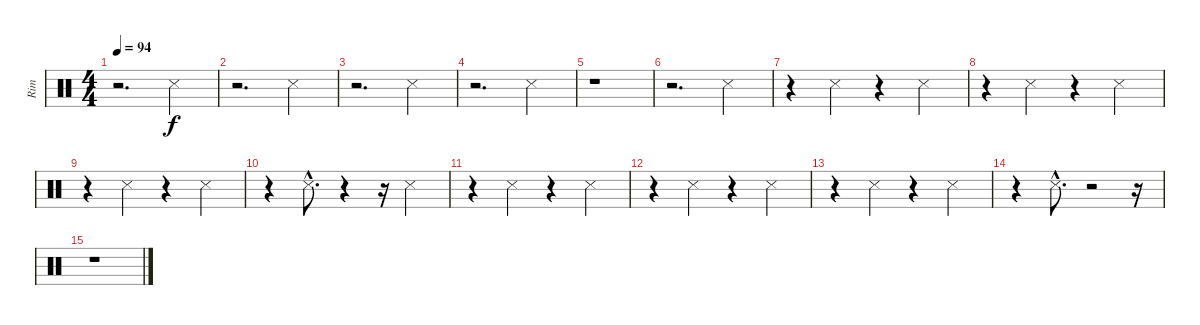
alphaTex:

\track ("Rim" "Rim") {instrument percussion}
\staff {score}
\articulation defaults
\ts (4 4)
\tempo 94
\clef neutral
\ks c
r.2{d dy f} "Snare (side stick) 3".4 |
r.2{d} "Snare (side stick) 3".4 |
r.2{d} "Snare (side stick) 3".4 |
r.2{d} "Snare (side stick) 3".4 |
r.1 |
r.2{d} "Snare (side stick) 3".4 |
r.4 "Snare (side stick) 3".4 r.4 "Snare (side stick) 3".4 |
r.4 "Snare (side stick) 3".4 r.4 "Snare (side stick) 3".4 |
r.4 "Snare (side stick) 3".4 r.4 "Snare (side stick) 3".4 |
r.4 "Snare (side stick) 3"{hac}.8{d} r.4 r.16 "Snare (side stick) 3".4 |
r.4 "Snare (side stick) 3".4 r.4 "Snare (side stick) 3".4 |
r.4 "Snare (side stick) 3".4 r.4 "Snare (side stick) 3".4 |
r.4 "Snare (side stick) 3".4 r.4 "Snare (side stick) 3".4 |
r.4 "Snare (side stick) 3"{hac}.8{d} r.2 r.16 |
r.1
